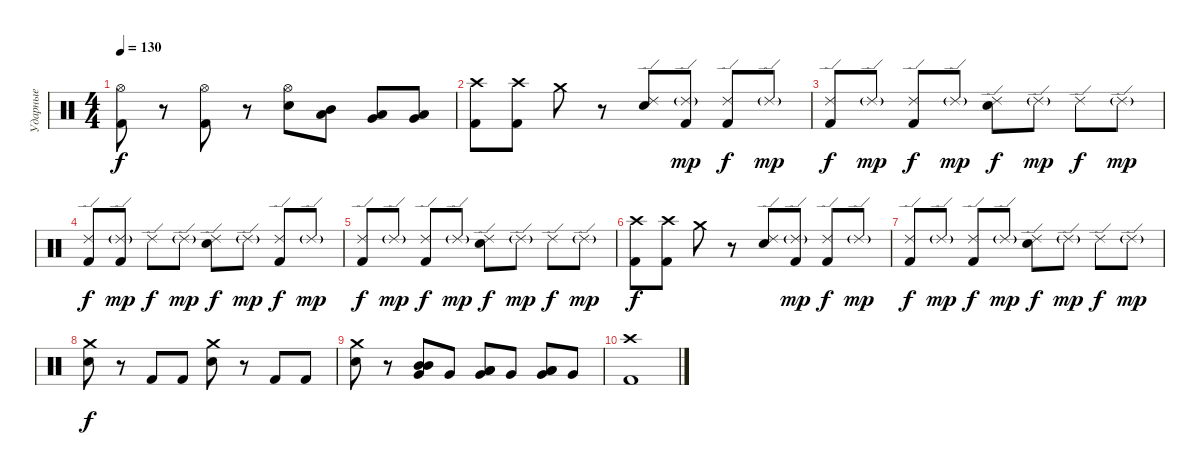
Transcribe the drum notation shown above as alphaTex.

\track ("Ударные" "Ударные") {instrument percussion}
\staff {score}
\articulation defaults
\ts (4 4)
\tempo 130
\clef neutral
\ks c
("Hi-Hat (open)" "Kick (hit) 2").8{dy f} r.8 ("Hi-Hat (open)" "Kick (hit) 2").8 r.8 ("Hi-Hat (open)" "Snare (hit) 2").8 ("Low Tom (hit)" "Mid Tom (hit)").8 ("Low Tom (hit)" "Very Low Tom (hit)").8 ("Very Low Tom (hit)" "Low Floor Tom (hit)").8 |
("Crash high (hit)" "Kick (hit) 2").8 ("Crash high (hit)" "Kick (hit) 2").8 "Crash medium (hit)".8 r.8 ("Ride (edge) 2" "Snare (hit) 2").8 ("Ride (edge) 2"{g} "Kick (hit) 2").8{dy mp} ("Ride (edge) 2" "Kick (hit) 2").8{dy f} "Ride (edge) 2"{g}.8{dy mp} |
("Ride (edge) 2" "Kick (hit) 2").8{dy f} "Ride (edge) 2"{g}.8{dy mp} ("Ride (edge) 2" "Kick (hit) 2").8{dy f} "Ride (edge) 2"{g}.8{dy mp} ("Ride (edge) 2" "Snare (hit) 2").8{dy f} "Ride (edge) 2"{g}.8{dy mp} "Ride (edge) 2".8{dy f} "Ride (edge) 2"{g}.8{dy mp} |
("Ride (edge) 2" "Kick (hit) 2").8{dy f} ("Ride (edge) 2"{g} "Kick (hit) 2").8{dy mp} "Ride (edge) 2".8{dy f} "Ride (edge) 2"{g}.8{dy mp} ("Ride (edge) 2" "Snare (hit) 2").8{dy f} "Ride (edge) 2"{g}.8{dy mp} ("Ride (edge) 2" "Kick (hit) 2").8{dy f} "Ride (edge) 2"{g}.8{dy mp} |
("Ride (edge) 2" "Kick (hit) 2").8{dy f} "Ride (edge) 2"{g}.8{dy mp} ("Ride (edge) 2" "Kick (hit) 2").8{dy f} "Ride (edge) 2"{g}.8{dy mp} ("Ride (edge) 2" "Snare (hit) 2").8{dy f} "Ride (edge) 2"{g}.8{dy mp} "Ride (edge) 2".8{dy f} "Ride (edge) 2"{g}.8{dy mp} |
("Crash high (hit)" "Kick (hit) 2").8{dy f} ("Crash high (hit)" "Kick (hit) 2").8 "Crash medium (hit)".8 r.8 ("Ride (edge) 2" "Snare (hit) 2").8 ("Ride (edge) 2"{g} "Kick (hit) 2").8{dy mp} ("Ride (edge) 2" "Kick (hit) 2").8{dy f} "Ride (edge) 2"{g}.8{dy mp} |
("Ride (edge) 2" "Kick (hit) 2").8{dy f} "Ride (edge) 2"{g}.8{dy mp} ("Ride (edge) 2" "Kick (hit) 2").8{dy f} "Ride (edge) 2"{g}.8{dy mp} ("Ride (edge) 2" "Snare (hit) 2").8{dy f} "Ride (edge) 2"{g}.8{dy mp} "Ride (edge) 2".8{dy f} "Ride (edge) 2"{g}.8{dy mp} |
("Crash medium (hit)" "Snare (hit) 2").8{dy f} r.8 "Kick (hit) 2".8 "Kick (hit) 2".8 ("Crash medium (hit)" "Snare (hit) 2").8 r.8 "Kick (hit) 2".8 "Kick (hit) 2".8 |
("Crash medium (hit)" "Snare (hit) 2").8 r.8 ("Mid Tom (hit)" "Mid Tom (hit)" "Very Low Tom (hit)").8 "Very Low Tom (hit)".8 ("Low Tom (hit)" "Low Tom (hit)" "Very Low Tom (hit)").8 "Very Low Tom (hit)".8 ("Low Floor Tom (hit)" "Low Floor Tom (hit)" "Very Low Tom (hit)").8 "Very Low Tom (hit)".8 |
("Crash high (hit)" "Kick (hit) 2").1
